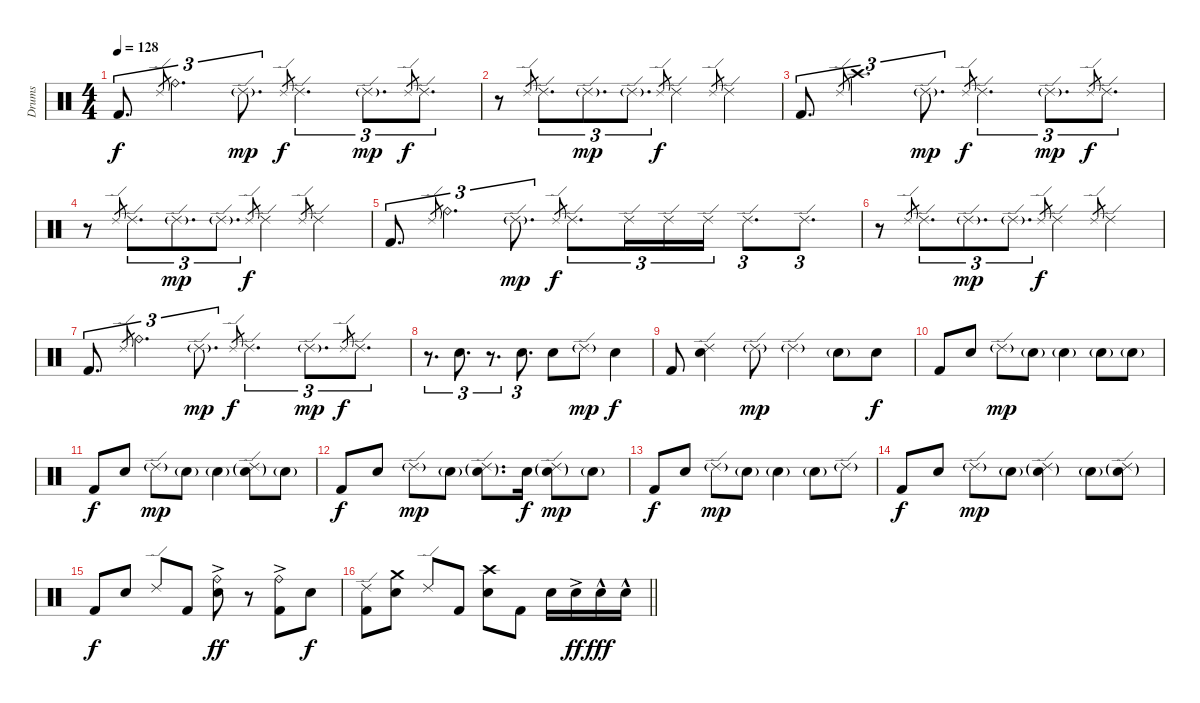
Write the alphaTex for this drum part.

\track ("Drums" "Drums") {instrument percussion}
\staff {score}
\articulation defaults
\ts (4 4)
\tempo 128
\clef neutral
\ks c "Kick (hit) 2".8{d tu (3 2) dy f} "Ride (edge) 2".8{gr} "Ride (bell)".4{d tu (3 2)} "Ride (edge) 2"{g}.8{d tu (3 2) dy mp} "Ride (edge) 2".8{gr dy f} "Ride (edge) 2".4{d tu (3 2)} "Ride (edge) 2"{g}.8{d tu (3 2) dy mp} "Ride (edge) 2".8{gr dy f} "Ride (edge) 2".8{d tu (3 2)}
|
r.8 "Ride (edge) 2".8{gr} "Ride (edge) 2".8{d tu (3 2)} "Ride (edge) 2"{g}.8{d tu (3 2) dy mp} "Ride (edge) 2"{g}.8{d tu (3 2)} "Ride (edge) 2".8{gr dy f} "Ride (edge) 2".4 "Ride (edge) 2".8{gr} "Ride (edge) 2".4 |
"Kick (hit) 2".8{d tu (3 2)} "Ride (edge) 2".8{gr} "Crash high (hit)".4{d tu (3 2)} "Ride (edge) 2"{g}.8{d tu (3 2) dy mp} "Ride (edge) 2".8{gr dy f} "Ride (edge) 2".4{d tu (3 2)} "Ride (edge) 2"{g}.8{d tu (3 2) dy mp} "Ride (edge) 2".8{gr dy f} "Ride (edge) 2".8{d tu (3 2)} |
r.8 "Ride (edge) 2".8{gr} "Ride (edge) 2".8{d tu (3 2)} "Ride (edge) 2"{g}.8{d tu (3 2) dy mp} "Ride (edge) 2"{g}.8{d tu (3 2)} "Ride (edge) 2".8{gr dy f} "Ride (edge) 2".4 "Ride (edge) 2".8{gr} "Ride (edge) 2".4 |
"Kick (hit) 2".8{d tu (3 2)} "Ride (edge) 2".8{gr} "Ride (bell)".4{d tu (3 2)} "Ride (edge) 2"{g}.8{d tu (3 2) dy mp} "Ride (edge) 2".8{gr dy f} "Ride (edge) 2".8{d tu (3 2)} "Ride (edge) 2".16{tu (3 2)} "Ride (edge) 2".16{tu (3 2)} "Ride (edge) 2".16{tu (3 2)} "Ride (edge) 2".8{d tu (3 2)} "Ride (edge) 2".8{d tu (3 2)} |
r.8 "Ride (edge) 2".8{gr} "Ride (edge) 2".8{d tu (3 2)} "Ride (edge) 2"{g}.8{d tu (3 2) dy mp} "Ride (edge) 2"{g}.8{d tu (3 2)} "Ride (edge) 2".8{gr dy f} "Ride (edge) 2".4 "Ride (edge) 2".8{gr} "Ride (edge) 2".4 |
"Kick (hit) 2".8{d tu (3 2)} "Ride (edge) 2".8{gr} "Ride (bell)".4{d tu (3 2)} "Ride (edge) 2"{g}.8{d tu (3 2) dy mp} "Ride (edge) 2".8{gr dy f} "Ride (edge) 2".4{d tu (3 2)} "Ride (edge) 2"{g}.8{d tu (3 2) dy mp} "Ride (edge) 2".8{gr dy f} "Ride (edge) 2".8{d tu (3 2)} |
r.8{d tu (3 2)} "Snare (hit) 2".8{d tu (3 2)} r.8{d tu (3 2)} "Snare (hit) 2".8{d tu (3 2)} "Snare (hit) 2".8 "Ride (edge) 2"{g}.8{dy mp} "Snare (hit) 2".4{dy f} |
"Kick (hit) 2".8 ("Ride (edge) 2" "Snare (hit) 2").4 "Ride (edge) 2"{g}.8{dy mp} "Ride (edge) 2"{g}.4 "Snare (hit) 2"{g}.8 "Snare (hit) 2".8{dy f} |
"Kick (hit) 2".8 "Snare (hit) 2".8 "Ride (edge) 2"{g}.8{dy mp} "Snare (hit) 2"{g}.8 "Snare (hit) 2"{g}.4 "Snare (hit) 2"{g}.8 "Snare (hit) 2"{g}.8 |
"Kick (hit) 2".8{dy f} "Snare (hit) 2".8 "Ride (edge) 2"{g}.8{dy mp} "Snare (hit) 2"{g}.8 "Snare (hit) 2"{g}.4 ("Ride (edge) 2"{g} "Snare (hit) 2"{g}).8 "Snare (hit) 2"{g}.8 |
"Kick (hit) 2".8{dy f} "Snare (hit) 2".8 "Ride (edge) 2"{g}.8{dy mp} "Snare (hit) 2"{g}.8 ("Ride (edge) 2"{g} "Snare (hit) 2"{g}).8{d} "Snare (hit) 2".16{dy f} ("Ride (edge) 2"{g} "Snare (hit) 2"{g}).8{dy mp} "Snare (hit) 2"{g}.8 |
"Kick (hit) 2".8{dy f} "Snare (hit) 2".8 "Ride (edge) 2"{g}.8{dy mp} "Snare (hit) 2"{g}.8 "Snare (hit) 2"{g}.4 "Snare (hit) 2"{g}.8 "Ride (edge) 2"{g}.8 |
"Kick (hit) 2".8{dy f} "Snare (hit) 2".8 "Ride (edge) 2"{g}.8{dy mp} "Snare (hit) 2"{g}.8 ("Ride (edge) 2"{g} "Snare (hit) 2"{g}).4 "Snare (hit) 2"{g}.8 ("Ride (edge) 2"{g} "Snare (hit) 2"{g}).8 |
"Kick (hit) 2".8{dy f} "Snare (hit) 2".8 "Ride (edge) 2".8 "Kick (hit) 2".8 ("Ride (bell)"{ac} "Snare (hit) 2").8{dy ff} r.8 ("Ride (bell)"{ac} "Kick (hit) 2").8 "Snare (hit) 2".8{dy f} |
\barLineRight lightlight
("Ride (edge) 2" "Kick (hit) 2").8 ("Crash medium (hit)" "Snare (hit) 2").8 "Ride (edge) 2".8 "Kick (hit) 2".8 ("Crash high (hit)" "Snare (hit) 2").8 "Kick (hit) 2".8 "Snare (hit) 2".16 "Snare (hit) 2"{ac}.16{dy ff} "Snare (hit) 2"{hac}.16{dy fff} "Snare (hit) 2"{hac}.16
